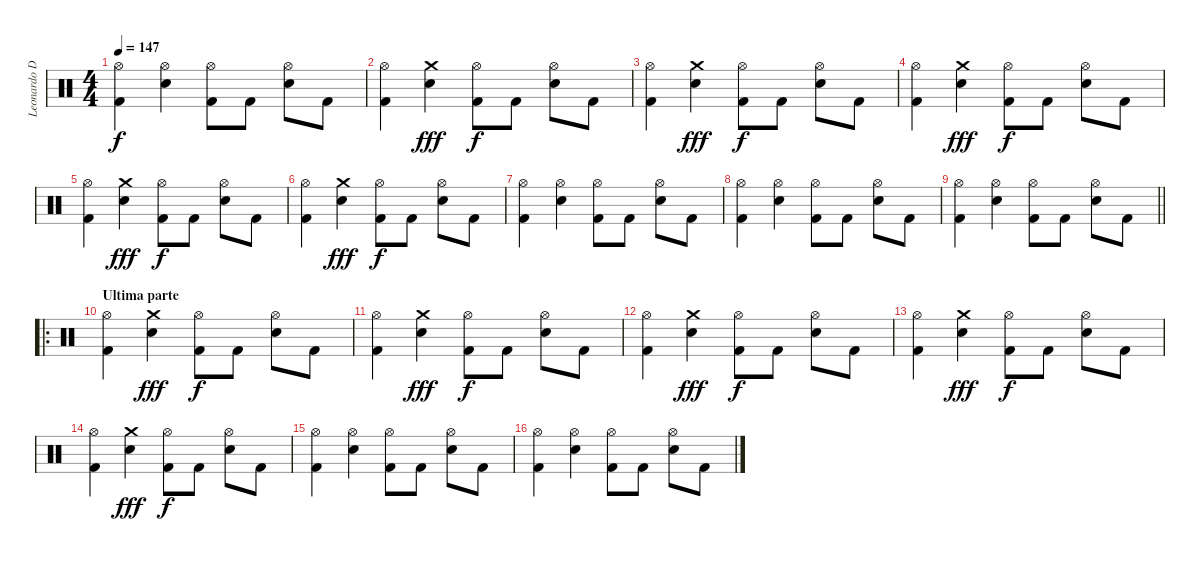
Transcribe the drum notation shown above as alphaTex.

\track ("Leonardo De Cecco" "Leonardo D") {instrument percussion}
\staff {score}
\articulation defaults
\ts (4 4)
\tempo 147
\clef neutral
\ks c
("Hi-Hat (open)" "Kick (hit) 2").4{dy f} ("Hi-Hat (open)" "Electric Snare (hit)").4 ("Hi-Hat (open)" "Kick (hit) 2").8 "Kick (hit) 2".8 ("Hi-Hat (open)" "Electric Snare (hit)").8 "Kick (hit) 2".8 |
("Hi-Hat (open)" "Kick (hit) 2").4 ("Crash medium (hit)" "Electric Snare (hit)").4{dy fff} ("Hi-Hat (open)" "Kick (hit) 2").8{dy f} "Kick (hit) 2".8 ("Hi-Hat (open)" "Electric Snare (hit)").8 "Kick (hit) 2".8 |
("Hi-Hat (open)" "Kick (hit) 2").4 ("Crash medium (hit)" "Electric Snare (hit)").4{dy fff} ("Hi-Hat (open)" "Kick (hit) 2").8{dy f} "Kick (hit) 2".8 ("Hi-Hat (open)" "Electric Snare (hit)").8 "Kick (hit) 2".8 |
("Hi-Hat (open)" "Kick (hit) 2").4 ("Crash medium (hit)" "Electric Snare (hit)").4{dy fff} ("Hi-Hat (open)" "Kick (hit) 2").8{dy f} "Kick (hit) 2".8 ("Hi-Hat (open)" "Electric Snare (hit)").8 "Kick (hit) 2".8 |
("Hi-Hat (open)" "Kick (hit) 2").4 ("Crash medium (hit)" "Electric Snare (hit)").4{dy fff} ("Hi-Hat (open)" "Kick (hit) 2").8{dy f} "Kick (hit) 2".8 ("Hi-Hat (open)" "Electric Snare (hit)").8 "Kick (hit) 2".8 |
("Hi-Hat (open)" "Kick (hit) 2").4 ("Crash medium (hit)" "Electric Snare (hit)").4{dy fff} ("Hi-Hat (open)" "Kick (hit) 2").8{dy f} "Kick (hit) 2".8 ("Hi-Hat (open)" "Electric Snare (hit)").8 "Kick (hit) 2".8 |
("Hi-Hat (open)" "Kick (hit) 2").4 ("Hi-Hat (open)" "Electric Snare (hit)").4 ("Hi-Hat (open)" "Kick (hit) 2").8 "Kick (hit) 2".8 ("Hi-Hat (open)" "Electric Snare (hit)").8 "Kick (hit) 2".8 |
("Hi-Hat (open)" "Kick (hit) 2").4 ("Hi-Hat (open)" "Electric Snare (hit)").4 ("Hi-Hat (open)" "Kick (hit) 2").8 "Kick (hit) 2".8 ("Hi-Hat (open)" "Electric Snare (hit)").8 "Kick (hit) 2".8 |
\barLineRight lightlight
("Hi-Hat (open)" "Kick (hit) 2").4 ("Hi-Hat (open)" "Electric Snare (hit)").4 ("Hi-Hat (open)" "Kick (hit) 2").8 "Kick (hit) 2".8 ("Hi-Hat (open)" "Electric Snare (hit)").8 "Kick (hit) 2".8 |
\ro
\section ("" "Ultima parte")
("Hi-Hat (open)" "Kick (hit) 2").4 ("Crash medium (hit)" "Electric Snare (hit)").4{dy fff} ("Hi-Hat (open)" "Kick (hit) 2").8{dy f} "Kick (hit) 2".8 ("Hi-Hat (open)" "Electric Snare (hit)").8 "Kick (hit) 2".8 |
("Hi-Hat (open)" "Kick (hit) 2").4 ("Crash medium (hit)" "Electric Snare (hit)").4{dy fff} ("Hi-Hat (open)" "Kick (hit) 2").8{dy f} "Kick (hit) 2".8 ("Hi-Hat (open)" "Electric Snare (hit)").8 "Kick (hit) 2".8 |
("Hi-Hat (open)" "Kick (hit) 2").4 ("Crash medium (hit)" "Electric Snare (hit)").4{dy fff} ("Hi-Hat (open)" "Kick (hit) 2").8{dy f} "Kick (hit) 2".8 ("Hi-Hat (open)" "Electric Snare (hit)").8 "Kick (hit) 2".8 |
("Hi-Hat (open)" "Kick (hit) 2").4 ("Crash medium (hit)" "Electric Snare (hit)").4{dy fff} ("Hi-Hat (open)" "Kick (hit) 2").8{dy f} "Kick (hit) 2".8 ("Hi-Hat (open)" "Electric Snare (hit)").8 "Kick (hit) 2".8 |
("Hi-Hat (open)" "Kick (hit) 2").4 ("Crash medium (hit)" "Electric Snare (hit)").4{dy fff} ("Hi-Hat (open)" "Kick (hit) 2").8{dy f} "Kick (hit) 2".8 ("Hi-Hat (open)" "Electric Snare (hit)").8 "Kick (hit) 2".8 |
("Hi-Hat (open)" "Kick (hit) 2").4 ("Hi-Hat (open)" "Electric Snare (hit)").4 ("Hi-Hat (open)" "Kick (hit) 2").8 "Kick (hit) 2".8 ("Hi-Hat (open)" "Electric Snare (hit)").8 "Kick (hit) 2".8 |
("Hi-Hat (open)" "Kick (hit) 2").4 ("Hi-Hat (open)" "Electric Snare (hit)").4 ("Hi-Hat (open)" "Kick (hit) 2").8 "Kick (hit) 2".8 ("Hi-Hat (open)" "Electric Snare (hit)").8 "Kick (hit) 2".8
